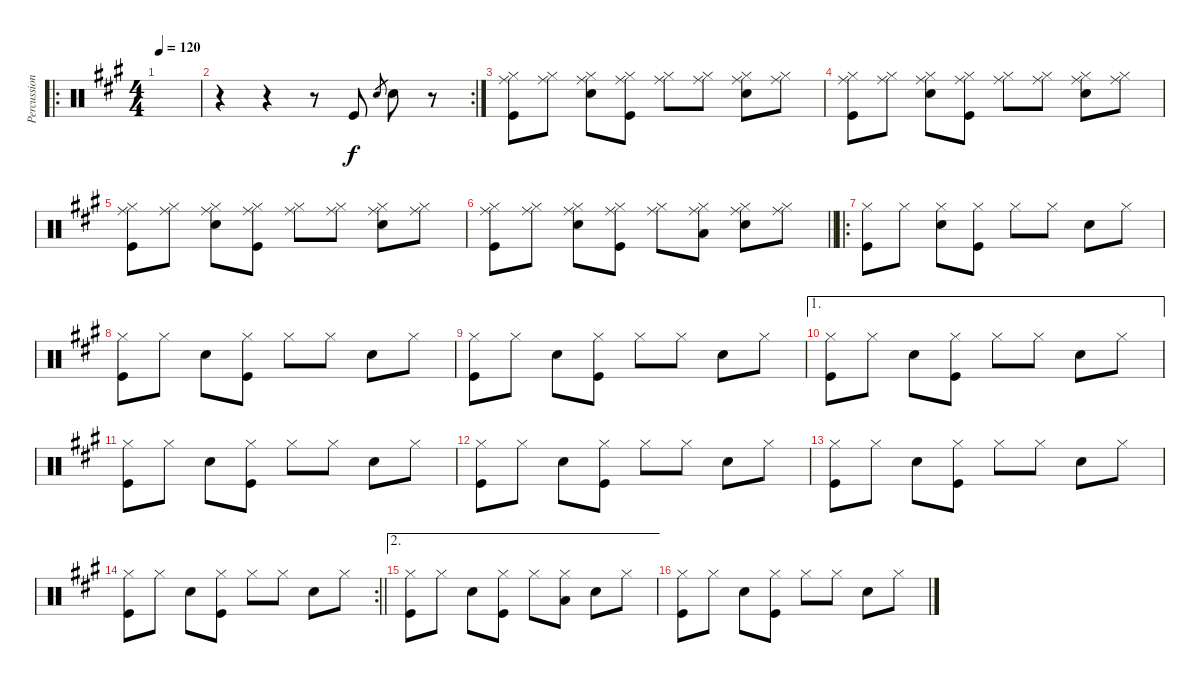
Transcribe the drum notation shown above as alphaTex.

\track ("Percussions" "Percussion") {instrument percussion}
\staff {score}
\articulation defaults
\ro
\ts (4 4)
\tempo 120
\clef neutral
\ks a
|
\rc 2
r.4 r.4 r.8 "Kick (hit)".8 "Snare (hit) 2".8{gr} "Snare (hit) 2".8 r.8 |
("Hi-Hat (closed)" "Kick (hit)" "Ride (middle)").8 ("Hi-Hat (closed)" "Ride (middle)").8 ("Snare (hit) 2" "Hi-Hat (closed)" "Ride (middle)").8 ("Hi-Hat (closed)" "Kick (hit)" "Ride (middle)").8 ("Hi-Hat (closed)" "Ride (middle)").8 ("Hi-Hat (closed)" "Ride (middle)").8 ("Snare (hit) 2" "Hi-Hat (closed)" "Ride (middle)").8 ("Hi-Hat (closed)" "Ride (middle)").8 |
("Hi-Hat (closed)" "Kick (hit)" "Ride (middle)").8 ("Hi-Hat (closed)" "Ride (middle)").8 ("Snare (hit) 2" "Hi-Hat (closed)" "Ride (middle)").8 ("Hi-Hat (closed)" "Kick (hit)" "Ride (middle)").8 ("Hi-Hat (closed)" "Ride (middle)").8 ("Hi-Hat (closed)" "Ride (middle)").8 ("Snare (hit) 2" "Hi-Hat (closed)" "Ride (middle)").8 ("Hi-Hat (closed)" "Ride (middle)").8 |
("Hi-Hat (closed)" "Kick (hit)" "Ride (middle)").8 ("Hi-Hat (closed)" "Ride (middle)").8 ("Snare (hit) 2" "Hi-Hat (closed)" "Ride (middle)").8 ("Hi-Hat (closed)" "Kick (hit)" "Ride (middle)").8 ("Hi-Hat (closed)" "Ride (middle)").8 ("Hi-Hat (closed)" "Ride (middle)").8 ("Snare (hit) 2" "Hi-Hat (closed)" "Ride (middle)").8 ("Hi-Hat (closed)" "Ride (middle)").8 |
\barLineRight lightlight
("Hi-Hat (closed)" "Kick (hit)" "Ride (middle)").8 ("Hi-Hat (closed)" "Ride (middle)").8 ("Snare (hit) 2" "Hi-Hat (closed)" "Ride (middle)").8 ("Hi-Hat (closed)" "Kick (hit)" "Ride (middle)").8 ("Hi-Hat (closed)" "Ride (middle)").8 ("Hi-Hat (closed)" "Low Floor Tom (hit)" "Ride (middle)").8 ("Snare (hit) 2" "Hi-Hat (closed)" "Ride (middle)").8 ("Hi-Hat (closed)" "Ride (middle)").8 |
\ro
("Kick (hit)" "Hi-Hat (closed)").8 "Hi-Hat (closed)".8 ("Snare (hit) 2" "Hi-Hat (closed)").8 ("Hi-Hat (closed)" "Kick (hit)").8 "Hi-Hat (closed)".8 "Hi-Hat (closed)".8 "Snare (hit) 2".8 "Hi-Hat (closed)".8 |
("Kick (hit)" "Hi-Hat (closed)").8 "Hi-Hat (closed)".8 "Snare (hit) 2".8 ("Hi-Hat (closed)" "Kick (hit)").8 "Hi-Hat (closed)".8 "Hi-Hat (closed)".8 "Snare (hit) 2".8 "Hi-Hat (closed)".8 |
("Kick (hit)" "Hi-Hat (closed)").8 "Hi-Hat (closed)".8 "Snare (hit) 2".8 ("Hi-Hat (closed)" "Kick (hit)").8 "Hi-Hat (closed)".8 "Hi-Hat (closed)".8 "Snare (hit) 2".8 "Hi-Hat (closed)".8 |
\ae 1
("Kick (hit)" "Hi-Hat (closed)").8 "Hi-Hat (closed)".8 "Snare (hit) 2".8 ("Hi-Hat (closed)" "Kick (hit)").8 "Hi-Hat (closed)".8 "Hi-Hat (closed)".8 "Snare (hit) 2".8 "Hi-Hat (closed)".8 |
("Kick (hit)" "Hi-Hat (closed)").8 "Hi-Hat (closed)".8 "Snare (hit) 2".8 ("Hi-Hat (closed)" "Kick (hit)").8 "Hi-Hat (closed)".8 "Hi-Hat (closed)".8 "Snare (hit) 2".8 "Hi-Hat (closed)".8 |
("Kick (hit)" "Hi-Hat (closed)").8 "Hi-Hat (closed)".8 "Snare (hit) 2".8 ("Hi-Hat (closed)" "Kick (hit)").8 "Hi-Hat (closed)".8 "Hi-Hat (closed)".8 "Snare (hit) 2".8 "Hi-Hat (closed)".8 |
("Kick (hit)" "Hi-Hat (closed)").8 "Hi-Hat (closed)".8 "Snare (hit) 2".8 ("Hi-Hat (closed)" "Kick (hit)").8 "Hi-Hat (closed)".8 "Hi-Hat (closed)".8 "Snare (hit) 2".8 "Hi-Hat (closed)".8 |
\rc 2
\barLineRight lightlight
("Kick (hit)" "Hi-Hat (closed)").8 "Hi-Hat (closed)".8 "Snare (hit) 2".8 ("Hi-Hat (closed)" "Kick (hit)").8 "Hi-Hat (closed)".8 "Hi-Hat (closed)".8 "Snare (hit) 2".8 "Hi-Hat (closed)".8 |
\ae 2
("Kick (hit)" "Hi-Hat (closed)").8 "Hi-Hat (closed)".8 "Snare (hit) 2".8 ("Hi-Hat (closed)" "Kick (hit)").8 "Hi-Hat (closed)".8 ("Hi-Hat (closed)" "Low Floor Tom (hit)").8 "Snare (hit) 2".8 "Hi-Hat (closed)".8 |
("Kick (hit)" "Hi-Hat (closed)").8 "Hi-Hat (closed)".8 "Snare (hit) 2".8 ("Hi-Hat (closed)" "Kick (hit)").8 "Hi-Hat (closed)".8 "Hi-Hat (closed)".8 "Snare (hit) 2".8 "Hi-Hat (closed)".8
